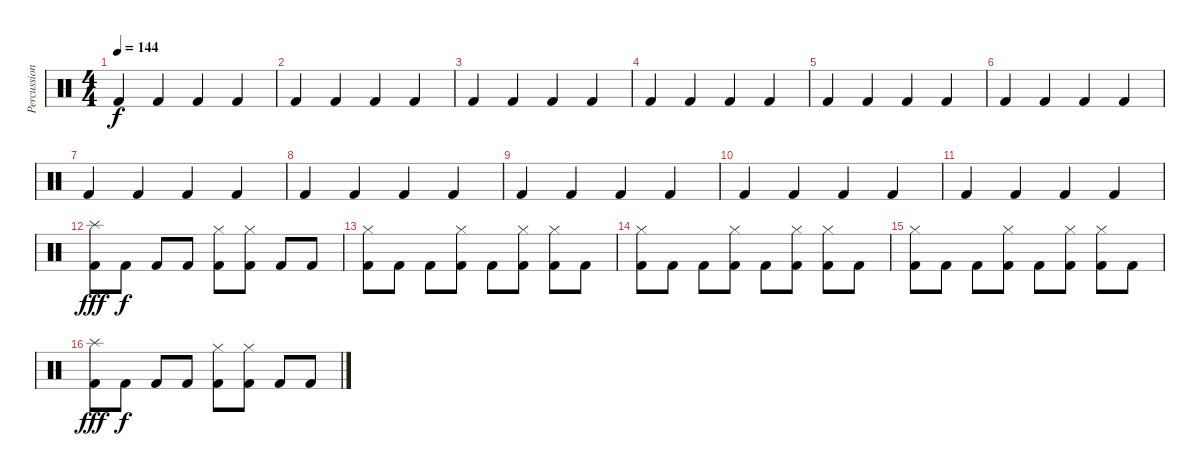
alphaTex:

\track ("Percussion" "Percussion") {instrument percussion}
\staff {score}
\articulation defaults
\ts (4 4)
\tempo 144
\clef neutral
\ks c "Kick (hit) 2".4{dy f} "Kick (hit) 2".4 "Kick (hit) 2".4 "Kick (hit) 2".4
|
"Kick (hit) 2".4 "Kick (hit) 2".4 "Kick (hit) 2".4 "Kick (hit) 2".4 |
"Kick (hit) 2".4 "Kick (hit) 2".4 "Kick (hit) 2".4 "Kick (hit) 2".4 |
"Kick (hit) 2".4 "Kick (hit) 2".4 "Kick (hit) 2".4 "Kick (hit) 2".4 |
"Kick (hit) 2".4 "Kick (hit) 2".4 "Kick (hit) 2".4 "Kick (hit) 2".4 |
"Kick (hit) 2".4 "Kick (hit) 2".4 "Kick (hit) 2".4 "Kick (hit) 2".4 |
"Kick (hit) 2".4 "Kick (hit) 2".4 "Kick (hit) 2".4 "Kick (hit) 2".4 |
"Kick (hit) 2".4 "Kick (hit) 2".4 "Kick (hit) 2".4 "Kick (hit) 2".4 |
"Kick (hit) 2".4 "Kick (hit) 2".4 "Kick (hit) 2".4 "Kick (hit) 2".4 |
"Kick (hit) 2".4 "Kick (hit) 2".4 "Kick (hit) 2".4 "Kick (hit) 2".4 |
"Kick (hit) 2".4 "Kick (hit) 2".4 "Kick (hit) 2".4 "Kick (hit) 2".4 |
("Splash (hit)" "Kick (hit) 2").8{dy fff} "Kick (hit) 2".8{dy f} "Kick (hit) 2".8 "Kick (hit) 2".8 ("Hi-Hat (closed)" "Kick (hit) 2").8 ("Hi-Hat (closed)" "Kick (hit) 2").8 "Kick (hit) 2".8 "Kick (hit) 2".8 |
("Hi-Hat (closed)" "Kick (hit) 2").8 "Kick (hit) 2".8 "Kick (hit) 2".8 ("Hi-Hat (closed)" "Kick (hit) 2").8 "Kick (hit) 2".8 ("Hi-Hat (closed)" "Kick (hit) 2").8 ("Hi-Hat (closed)" "Kick (hit) 2").8 "Kick (hit) 2".8 |
("Hi-Hat (closed)" "Kick (hit) 2").8 "Kick (hit) 2".8 "Kick (hit) 2".8 ("Hi-Hat (closed)" "Kick (hit) 2").8 "Kick (hit) 2".8 ("Hi-Hat (closed)" "Kick (hit) 2").8 ("Hi-Hat (closed)" "Kick (hit) 2").8 "Kick (hit) 2".8 |
("Hi-Hat (closed)" "Kick (hit) 2").8 "Kick (hit) 2".8 "Kick (hit) 2".8 ("Hi-Hat (closed)" "Kick (hit) 2").8 "Kick (hit) 2".8 ("Hi-Hat (closed)" "Kick (hit) 2").8 ("Hi-Hat (closed)" "Kick (hit) 2").8 "Kick (hit) 2".8 |
("Splash (hit)" "Kick (hit) 2").8{dy fff} "Kick (hit) 2".8{dy f} "Kick (hit) 2".8 "Kick (hit) 2".8 ("Hi-Hat (closed)" "Kick (hit) 2").8 ("Hi-Hat (closed)" "Kick (hit) 2").8 "Kick (hit) 2".8 "Kick (hit) 2".8
